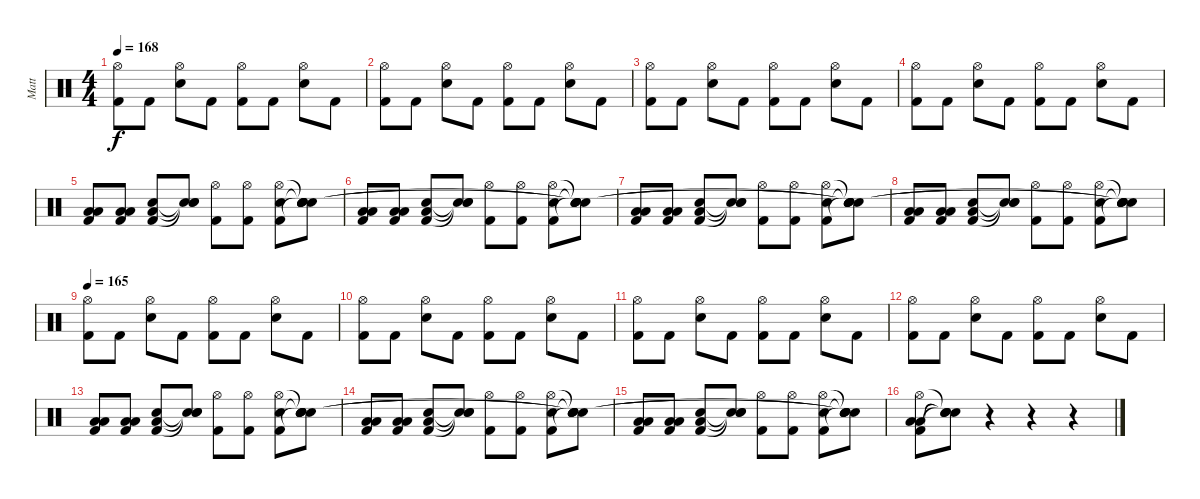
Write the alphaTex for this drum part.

\track ("Matt" "Matt") {instrument percussion}
\staff {score}
\articulation defaults
\ts (4 4)
\tempo 168
\clef neutral
\ks c
("Hi-Hat (open)" "Kick (hit) 2").8{dy f} "Kick (hit) 2".8 ("Hi-Hat (open)" "Electric Snare (hit)").8 "Kick (hit) 2".8 ("Hi-Hat (open)" "Kick (hit) 2").8 "Kick (hit) 2".8 ("Hi-Hat (open)" "Electric Snare (hit)").8 "Kick (hit) 2".8 |
("Hi-Hat (open)" "Kick (hit) 2").8 "Kick (hit) 2".8 ("Hi-Hat (open)" "Electric Snare (hit)").8 "Kick (hit) 2".8 ("Hi-Hat (open)" "Kick (hit) 2").8 "Kick (hit) 2".8 ("Hi-Hat (open)" "Electric Snare (hit)").8 "Kick (hit) 2".8 |
("Hi-Hat (open)" "Kick (hit) 2").8 "Kick (hit) 2".8 ("Hi-Hat (open)" "Electric Snare (hit)").8 "Kick (hit) 2".8 ("Hi-Hat (open)" "Kick (hit) 2").8 "Kick (hit) 2".8 ("Hi-Hat (open)" "Electric Snare (hit)").8 "Kick (hit) 2".8 |
("Hi-Hat (open)" "Kick (hit) 2").8 "Kick (hit) 2".8 ("Hi-Hat (open)" "Electric Snare (hit)").8 "Kick (hit) 2".8 ("Hi-Hat (open)" "Kick (hit) 2").8 "Kick (hit) 2".8 ("Hi-Hat (open)" "Electric Snare (hit)").8 "Kick (hit) 2".8 |
("Low Tom (hit)" "Kick (hit) 2" "Low Floor Tom (hit)").8 ("Low Tom (hit)" "Kick (hit) 2" "Low Floor Tom (hit)").8 ("Electric Snare (hit)" "Kick (hit) 2" "Low Floor Tom (hit)").8 ("Snare (hit)"{t} "Snare (hit)"{t} "Snare (hit)"{t}).8 ("Hi-Hat (open)" "Kick (hit) 2").8 ("Hi-Hat (open)" "Kick (hit) 2").8 ("Hi-Hat (open)" "Electric Snare (hit)" "Kick (hit) 2").8 ("Snare (hit)"{t} "Snare (hit)"{t} "Snare (hit)"{t} "Snare (hit)" "Snare (hit)").8 |
("Low Tom (hit)" "Kick (hit) 2" "Low Floor Tom (hit)").8 ("Low Tom (hit)" "Kick (hit) 2" "Low Floor Tom (hit)").8 ("Electric Snare (hit)" "Kick (hit) 2" "Low Floor Tom (hit)").8 ("Snare (hit)"{t} "Snare (hit)"{t} "Snare (hit)"{t}).8 ("Hi-Hat (open)" "Kick (hit) 2").8 ("Hi-Hat (open)" "Kick (hit) 2").8 ("Hi-Hat (open)" "Electric Snare (hit)" "Kick (hit) 2").8 ("Snare (hit)"{t} "Snare (hit)"{t} "Snare (hit)"{t} "Snare (hit)"{t} "Snare (hit)"{t}).8 |
("Low Tom (hit)" "Kick (hit) 2" "Low Floor Tom (hit)").8 ("Low Tom (hit)" "Kick (hit) 2" "Low Floor Tom (hit)").8 ("Electric Snare (hit)" "Kick (hit) 2" "Low Floor Tom (hit)").8 ("Snare (hit)"{t} "Snare (hit)"{t} "Snare (hit)"{t}).8 ("Hi-Hat (open)" "Kick (hit) 2").8 ("Hi-Hat (open)" "Kick (hit) 2").8 ("Hi-Hat (open)" "Electric Snare (hit)" "Kick (hit) 2").8 ("Snare (hit)"{t} "Snare (hit)"{t} "Snare (hit)"{t} "Snare (hit)"{t} "Snare (hit)"{t}).8 |
("Low Tom (hit)" "Kick (hit) 2" "Low Floor Tom (hit)").8 ("Low Tom (hit)" "Kick (hit) 2" "Low Floor Tom (hit)").8 ("Electric Snare (hit)" "Kick (hit) 2" "Low Floor Tom (hit)").8 ("Snare (hit)"{t} "Snare (hit)"{t} "Snare (hit)"{t}).8 ("Hi-Hat (open)" "Kick (hit) 2").8 ("Hi-Hat (open)" "Kick (hit) 2").8 ("Hi-Hat (open)" "Electric Snare (hit)" "Kick (hit) 2").8 ("Snare (hit)"{t} "Snare (hit)"{t} "Snare (hit)"{t} "Snare (hit)"{t} "Snare (hit)"{t}).8 |
\tempo 165
("Hi-Hat (open)" "Kick (hit) 2").8 "Kick (hit) 2".8 ("Hi-Hat (open)" "Electric Snare (hit)").8 "Kick (hit) 2".8 ("Hi-Hat (open)" "Kick (hit) 2").8 "Kick (hit) 2".8 ("Hi-Hat (open)" "Electric Snare (hit)").8 "Kick (hit) 2".8 |
("Hi-Hat (open)" "Kick (hit) 2").8 "Kick (hit) 2".8 ("Hi-Hat (open)" "Electric Snare (hit)").8 "Kick (hit) 2".8 ("Hi-Hat (open)" "Kick (hit) 2").8 "Kick (hit) 2".8 ("Hi-Hat (open)" "Electric Snare (hit)").8 "Kick (hit) 2".8 |
("Hi-Hat (open)" "Kick (hit) 2").8 "Kick (hit) 2".8 ("Hi-Hat (open)" "Electric Snare (hit)").8 "Kick (hit) 2".8 ("Hi-Hat (open)" "Kick (hit) 2").8 "Kick (hit) 2".8 ("Hi-Hat (open)" "Electric Snare (hit)").8 "Kick (hit) 2".8 |
("Hi-Hat (open)" "Kick (hit) 2").8 "Kick (hit) 2".8 ("Hi-Hat (open)" "Electric Snare (hit)").8 "Kick (hit) 2".8 ("Hi-Hat (open)" "Kick (hit) 2").8 "Kick (hit) 2".8 ("Hi-Hat (open)" "Electric Snare (hit)").8 "Kick (hit) 2".8 |
("Low Tom (hit)" "Kick (hit) 2" "Low Floor Tom (hit)").8 ("Low Tom (hit)" "Kick (hit) 2" "Low Floor Tom (hit)").8 ("Electric Snare (hit)" "Kick (hit) 2" "Low Floor Tom (hit)").8 ("Snare (hit)"{t} "Snare (hit)"{t} "Snare (hit)"{t}).8 ("Hi-Hat (open)" "Kick (hit) 2").8 ("Hi-Hat (open)" "Kick (hit) 2").8 ("Hi-Hat (open)" "Electric Snare (hit)" "Kick (hit) 2").8 ("Snare (hit)"{t} "Snare (hit)"{t} "Snare (hit)"{t} "Snare (hit)" "Snare (hit)").8 |
("Low Tom (hit)" "Kick (hit) 2" "Low Floor Tom (hit)").8 ("Low Tom (hit)" "Kick (hit) 2" "Low Floor Tom (hit)").8 ("Electric Snare (hit)" "Kick (hit) 2" "Low Floor Tom (hit)").8 ("Snare (hit)"{t} "Snare (hit)"{t} "Snare (hit)"{t}).8 ("Hi-Hat (open)" "Kick (hit) 2").8 ("Hi-Hat (open)" "Kick (hit) 2").8 ("Hi-Hat (open)" "Electric Snare (hit)" "Kick (hit) 2").8 ("Snare (hit)"{t} "Snare (hit)"{t} "Snare (hit)"{t} "Snare (hit)"{t} "Snare (hit)"{t}).8 |
("Low Tom (hit)" "Kick (hit) 2" "Low Floor Tom (hit)").8 ("Low Tom (hit)" "Kick (hit) 2" "Low Floor Tom (hit)").8 ("Electric Snare (hit)" "Kick (hit) 2" "Low Floor Tom (hit)").8 ("Snare (hit)"{t} "Snare (hit)"{t} "Snare (hit)"{t}).8 ("Hi-Hat (open)" "Kick (hit) 2").8 ("Hi-Hat (open)" "Kick (hit) 2").8 ("Hi-Hat (open)" "Electric Snare (hit)" "Kick (hit) 2").8 ("Snare (hit)"{t} "Snare (hit)"{t} "Snare (hit)"{t} "Snare (hit)"{t} "Snare (hit)"{t}).8 |
("Hi-Hat (open)" "Low Tom (hit)" "Kick (hit) 2" "Low Floor Tom (hit)").8 ("Snare (hit)"{t} "Snare (hit)"{t} "Snare (hit)"{t} "Snare (hit)"{t}).8 r.4 r.4 r.4
